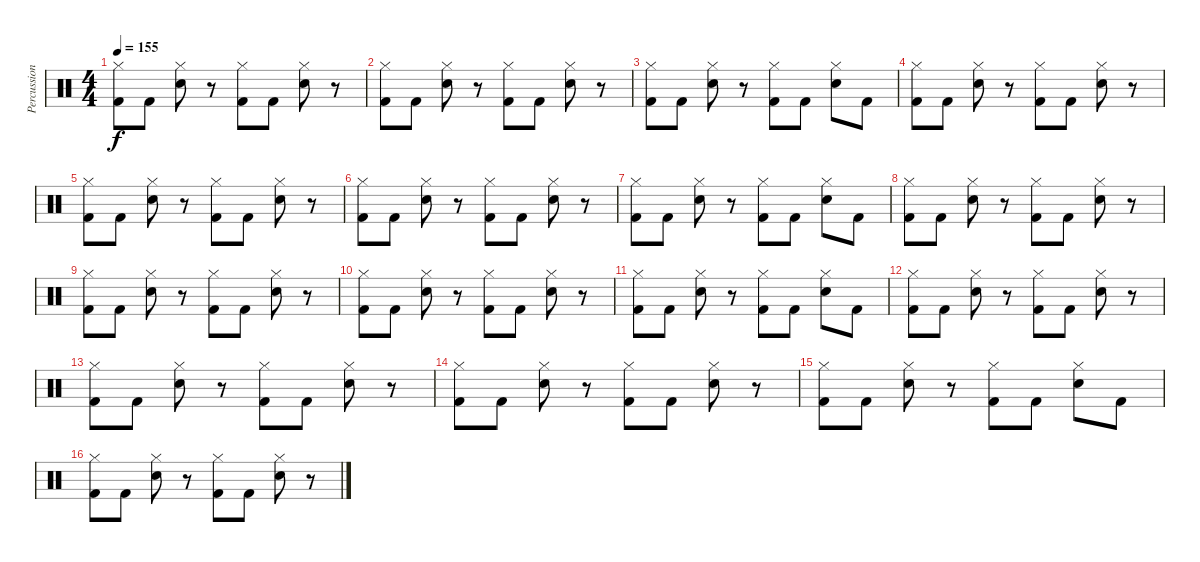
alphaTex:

\track ("Percussions" "Percussion") {mute instrument percussion}
\staff {score}
\articulation defaults
\ts (4 4)
\tempo 155
\clef neutral
\ks c
("Hi-Hat (closed)" "Kick (hit) 2").8{dy f} "Kick (hit) 2".8 ("Hi-Hat (closed)" "Electric Snare (hit)").8 r.8 ("Hi-Hat (closed)" "Kick (hit) 2").8 "Kick (hit) 2".8 ("Hi-Hat (closed)" "Electric Snare (hit)").8 r.8 |
("Hi-Hat (closed)" "Kick (hit) 2").8 "Kick (hit) 2".8 ("Hi-Hat (closed)" "Electric Snare (hit)").8 r.8 ("Hi-Hat (closed)" "Kick (hit) 2").8 "Kick (hit) 2".8 ("Hi-Hat (closed)" "Electric Snare (hit)").8 r.8 |
("Hi-Hat (closed)" "Kick (hit) 2").8 "Kick (hit) 2".8 ("Hi-Hat (closed)" "Electric Snare (hit)").8 r.8 ("Hi-Hat (closed)" "Kick (hit) 2").8 "Kick (hit) 2".8 ("Hi-Hat (closed)" "Electric Snare (hit)").8 "Kick (hit) 2".8 |
("Hi-Hat (closed)" "Kick (hit) 2").8 "Kick (hit) 2".8 ("Hi-Hat (closed)" "Electric Snare (hit)").8 r.8 ("Hi-Hat (closed)" "Kick (hit) 2").8 "Kick (hit) 2".8 ("Hi-Hat (closed)" "Electric Snare (hit)").8 r.8 |
("Hi-Hat (closed)" "Kick (hit) 2").8 "Kick (hit) 2".8 ("Hi-Hat (closed)" "Electric Snare (hit)").8 r.8 ("Hi-Hat (closed)" "Kick (hit) 2").8 "Kick (hit) 2".8 ("Hi-Hat (closed)" "Electric Snare (hit)").8 r.8 |
("Hi-Hat (closed)" "Kick (hit) 2").8 "Kick (hit) 2".8 ("Hi-Hat (closed)" "Electric Snare (hit)").8 r.8 ("Hi-Hat (closed)" "Kick (hit) 2").8 "Kick (hit) 2".8 ("Hi-Hat (closed)" "Electric Snare (hit)").8 r.8 |
("Hi-Hat (closed)" "Kick (hit) 2").8 "Kick (hit) 2".8 ("Hi-Hat (closed)" "Electric Snare (hit)").8 r.8 ("Hi-Hat (closed)" "Kick (hit) 2").8 "Kick (hit) 2".8 ("Hi-Hat (closed)" "Electric Snare (hit)").8 "Kick (hit) 2".8 |
("Hi-Hat (closed)" "Kick (hit) 2").8 "Kick (hit) 2".8 ("Hi-Hat (closed)" "Electric Snare (hit)").8 r.8 ("Hi-Hat (closed)" "Kick (hit) 2").8 "Kick (hit) 2".8 ("Hi-Hat (closed)" "Electric Snare (hit)").8 r.8 |
("Hi-Hat (closed)" "Kick (hit) 2").8 "Kick (hit) 2".8 ("Hi-Hat (closed)" "Electric Snare (hit)").8 r.8 ("Hi-Hat (closed)" "Kick (hit) 2").8 "Kick (hit) 2".8 ("Hi-Hat (closed)" "Electric Snare (hit)").8 r.8 |
("Hi-Hat (closed)" "Kick (hit) 2").8 "Kick (hit) 2".8 ("Hi-Hat (closed)" "Electric Snare (hit)").8 r.8 ("Hi-Hat (closed)" "Kick (hit) 2").8 "Kick (hit) 2".8 ("Hi-Hat (closed)" "Electric Snare (hit)").8 r.8 |
("Hi-Hat (closed)" "Kick (hit) 2").8 "Kick (hit) 2".8 ("Hi-Hat (closed)" "Electric Snare (hit)").8 r.8 ("Hi-Hat (closed)" "Kick (hit) 2").8 "Kick (hit) 2".8 ("Hi-Hat (closed)" "Electric Snare (hit)").8 "Kick (hit) 2".8 |
("Hi-Hat (closed)" "Kick (hit) 2").8 "Kick (hit) 2".8 ("Hi-Hat (closed)" "Electric Snare (hit)").8 r.8 ("Hi-Hat (closed)" "Kick (hit) 2").8 "Kick (hit) 2".8 ("Hi-Hat (closed)" "Electric Snare (hit)").8 r.8 |
("Hi-Hat (closed)" "Kick (hit) 2").8 "Kick (hit) 2".8 ("Hi-Hat (closed)" "Electric Snare (hit)").8 r.8 ("Hi-Hat (closed)" "Kick (hit) 2").8 "Kick (hit) 2".8 ("Hi-Hat (closed)" "Electric Snare (hit)").8 r.8 |
("Hi-Hat (closed)" "Kick (hit) 2").8 "Kick (hit) 2".8 ("Hi-Hat (closed)" "Electric Snare (hit)").8 r.8 ("Hi-Hat (closed)" "Kick (hit) 2").8 "Kick (hit) 2".8 ("Hi-Hat (closed)" "Electric Snare (hit)").8 r.8 |
("Hi-Hat (closed)" "Kick (hit) 2").8 "Kick (hit) 2".8 ("Hi-Hat (closed)" "Electric Snare (hit)").8 r.8 ("Hi-Hat (closed)" "Kick (hit) 2").8 "Kick (hit) 2".8 ("Hi-Hat (closed)" "Electric Snare (hit)").8 "Kick (hit) 2".8 |
("Hi-Hat (closed)" "Kick (hit) 2").8 "Kick (hit) 2".8 ("Hi-Hat (closed)" "Electric Snare (hit)").8 r.8 ("Hi-Hat (closed)" "Kick (hit) 2").8 "Kick (hit) 2".8 ("Hi-Hat (closed)" "Electric Snare (hit)").8 r.8
